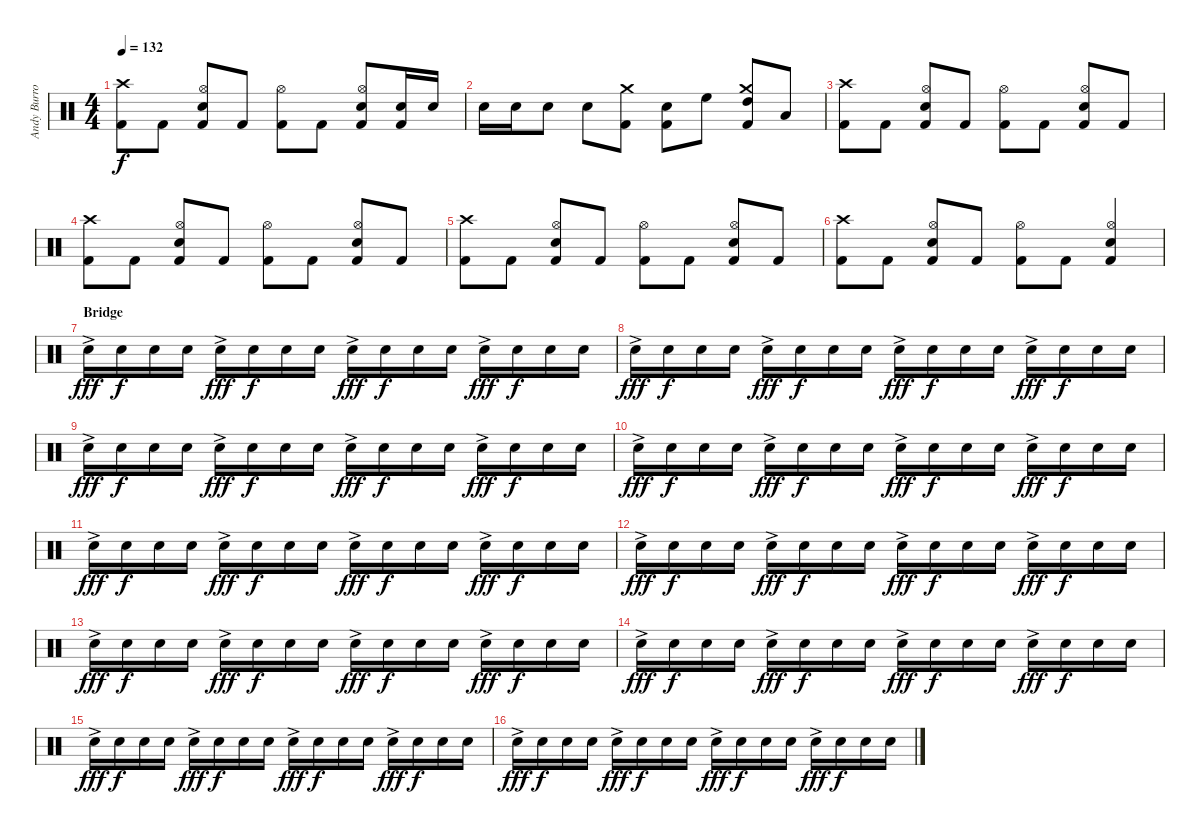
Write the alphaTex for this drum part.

\track ("Andy Burrows" "Andy Burro") {instrument percussion}
\staff {score}
\articulation defaults
\ts (4 4)
\tempo 132
\clef neutral
\ks c
("Crash high (hit)" "Kick (hit) 2").8{dy f} "Kick (hit) 2".8 ("Hi-Hat (open)" "Snare (hit) 2" "Kick (hit) 2").8 "Kick (hit) 2".8 ("Hi-Hat (open)" "Kick (hit) 2").8 "Kick (hit) 2".8 ("Hi-Hat (open)" "Snare (hit) 2" "Kick (hit) 2").8 ("Snare (hit) 2" "Kick (hit) 2").16 "Snare (hit) 2".16 |
"Snare (hit) 2".16 "Snare (hit) 2".16 "Snare (hit) 2".8 "Snare (hit) 2".8 ("Crash medium (hit)" "Kick (hit) 2").8 ("Snare (hit) 2" "Kick (hit) 2").8 "High Floor Tom (hit)".8 ("Crash medium (hit)" "High Tom (hit)" "Kick (hit) 2").8 "Low Tom (hit)".8 |
("Crash high (hit)" "Kick (hit) 2").8 "Kick (hit) 2".8 ("Hi-Hat (open)" "Snare (hit) 2" "Kick (hit) 2").8 "Kick (hit) 2".8 ("Hi-Hat (open)" "Kick (hit) 2").8 "Kick (hit) 2".8 ("Hi-Hat (open)" "Snare (hit) 2" "Kick (hit) 2").8 "Kick (hit) 2".8 |
("Crash high (hit)" "Kick (hit) 2").8 "Kick (hit) 2".8 ("Hi-Hat (open)" "Snare (hit) 2" "Kick (hit) 2").8 "Kick (hit) 2".8 ("Hi-Hat (open)" "Kick (hit) 2").8 "Kick (hit) 2".8 ("Hi-Hat (open)" "Snare (hit) 2" "Kick (hit) 2").8 "Kick (hit) 2".8 |
("Crash high (hit)" "Kick (hit) 2").8{volume 11} "Kick (hit) 2".8 ("Hi-Hat (open)" "Snare (hit) 2" "Kick (hit) 2").8 "Kick (hit) 2".8 ("Hi-Hat (open)" "Kick (hit) 2").8 "Kick (hit) 2".8 ("Hi-Hat (open)" "Snare (hit) 2" "Kick (hit) 2").8 "Kick (hit) 2".8 |
("Crash high (hit)" "Kick (hit) 2").8 "Kick (hit) 2".8 ("Hi-Hat (open)" "Snare (hit) 2" "Kick (hit) 2").8 "Kick (hit) 2".8 ("Hi-Hat (open)" "Kick (hit) 2").8 "Kick (hit) 2".8 ("Hi-Hat (open)" "Snare (hit) 2" "Kick (hit) 2").4 |
\section ("" "Bridge")
"Snare (hit) 2"{ac}.16{dy fff volume 8} "Snare (hit) 2".16{dy f} "Snare (hit) 2".16 "Snare (hit) 2".16 "Snare (hit) 2"{ac}.16{dy fff} "Snare (hit) 2".16{dy f} "Snare (hit) 2".16 "Snare (hit) 2".16 "Snare (hit) 2"{ac}.16{dy fff} "Snare (hit) 2".16{dy f} "Snare (hit) 2".16 "Snare (hit) 2".16 "Snare (hit) 2"{ac}.16{dy fff} "Snare (hit) 2".16{dy f} "Snare (hit) 2".16 "Snare (hit) 2".16 |
"Snare (hit) 2"{ac}.16{dy fff} "Snare (hit) 2".16{dy f} "Snare (hit) 2".16 "Snare (hit) 2".16 "Snare (hit) 2"{ac}.16{dy fff} "Snare (hit) 2".16{dy f} "Snare (hit) 2".16 "Snare (hit) 2".16 "Snare (hit) 2"{ac}.16{dy fff} "Snare (hit) 2".16{dy f} "Snare (hit) 2".16 "Snare (hit) 2".16 "Snare (hit) 2"{ac}.16{dy fff} "Snare (hit) 2".16{dy f} "Snare (hit) 2".16 "Snare (hit) 2".16 |
"Snare (hit) 2"{ac}.16{dy fff volume 10} "Snare (hit) 2".16{dy f} "Snare (hit) 2".16 "Snare (hit) 2".16 "Snare (hit) 2"{ac}.16{dy fff} "Snare (hit) 2".16{dy f} "Snare (hit) 2".16 "Snare (hit) 2".16 "Snare (hit) 2"{ac}.16{dy fff} "Snare (hit) 2".16{dy f} "Snare (hit) 2".16 "Snare (hit) 2".16 "Snare (hit) 2"{ac}.16{dy fff} "Snare (hit) 2".16{dy f} "Snare (hit) 2".16 "Snare (hit) 2".16 |
"Snare (hit) 2"{ac}.16{dy fff} "Snare (hit) 2".16{dy f} "Snare (hit) 2".16 "Snare (hit) 2".16 "Snare (hit) 2"{ac}.16{dy fff} "Snare (hit) 2".16{dy f} "Snare (hit) 2".16 "Snare (hit) 2".16 "Snare (hit) 2"{ac}.16{dy fff} "Snare (hit) 2".16{dy f} "Snare (hit) 2".16 "Snare (hit) 2".16 "Snare (hit) 2"{ac}.16{dy fff} "Snare (hit) 2".16{dy f} "Snare (hit) 2".16 "Snare (hit) 2".16 |
"Snare (hit) 2"{ac}.16{dy fff} "Snare (hit) 2".16{dy f} "Snare (hit) 2".16 "Snare (hit) 2".16 "Snare (hit) 2"{ac}.16{dy fff} "Snare (hit) 2".16{dy f} "Snare (hit) 2".16 "Snare (hit) 2".16 "Snare (hit) 2"{ac}.16{dy fff} "Snare (hit) 2".16{dy f} "Snare (hit) 2".16 "Snare (hit) 2".16 "Snare (hit) 2"{ac}.16{dy fff} "Snare (hit) 2".16{dy f} "Snare (hit) 2".16 "Snare (hit) 2".16 |
"Snare (hit) 2"{ac}.16{dy fff} "Snare (hit) 2".16{dy f} "Snare (hit) 2".16 "Snare (hit) 2".16 "Snare (hit) 2"{ac}.16{dy fff} "Snare (hit) 2".16{dy f} "Snare (hit) 2".16 "Snare (hit) 2".16 "Snare (hit) 2"{ac}.16{dy fff} "Snare (hit) 2".16{dy f} "Snare (hit) 2".16 "Snare (hit) 2".16 "Snare (hit) 2"{ac}.16{dy fff} "Snare (hit) 2".16{dy f} "Snare (hit) 2".16 "Snare (hit) 2".16 |
"Snare (hit) 2"{ac}.16{dy fff} "Snare (hit) 2".16{dy f} "Snare (hit) 2".16 "Snare (hit) 2".16 "Snare (hit) 2"{ac}.16{dy fff} "Snare (hit) 2".16{dy f} "Snare (hit) 2".16 "Snare (hit) 2".16 "Snare (hit) 2"{ac}.16{dy fff} "Snare (hit) 2".16{dy f} "Snare (hit) 2".16 "Snare (hit) 2".16 "Snare (hit) 2"{ac}.16{dy fff} "Snare (hit) 2".16{dy f} "Snare (hit) 2".16 "Snare (hit) 2".16 |
"Snare (hit) 2"{ac}.16{dy fff} "Snare (hit) 2".16{dy f} "Snare (hit) 2".16 "Snare (hit) 2".16 "Snare (hit) 2"{ac}.16{dy fff} "Snare (hit) 2".16{dy f} "Snare (hit) 2".16 "Snare (hit) 2".16 "Snare (hit) 2"{ac}.16{dy fff} "Snare (hit) 2".16{dy f} "Snare (hit) 2".16 "Snare (hit) 2".16 "Snare (hit) 2"{ac}.16{dy fff} "Snare (hit) 2".16{dy f} "Snare (hit) 2".16 "Snare (hit) 2".16 |
"Snare (hit) 2"{ac}.16{dy fff volume 16} "Snare (hit) 2".16{dy f} "Snare (hit) 2".16 "Snare (hit) 2".16 "Snare (hit) 2"{ac}.16{dy fff} "Snare (hit) 2".16{dy f} "Snare (hit) 2".16 "Snare (hit) 2".16 "Snare (hit) 2"{ac}.16{dy fff} "Snare (hit) 2".16{dy f} "Snare (hit) 2".16 "Snare (hit) 2".16 "Snare (hit) 2"{ac}.16{dy fff} "Snare (hit) 2".16{dy f} "Snare (hit) 2".16 "Snare (hit) 2".16 |
"Snare (hit) 2"{ac}.16{dy fff} "Snare (hit) 2".16{dy f} "Snare (hit) 2".16 "Snare (hit) 2".16 "Snare (hit) 2"{ac}.16{dy fff} "Snare (hit) 2".16{dy f} "Snare (hit) 2".16 "Snare (hit) 2".16 "Snare (hit) 2"{ac}.16{dy fff} "Snare (hit) 2".16{dy f} "Snare (hit) 2".16 "Snare (hit) 2".16 "Snare (hit) 2"{ac}.16{dy fff} "Snare (hit) 2".16{dy f} "Snare (hit) 2".16 "Snare (hit) 2".16
